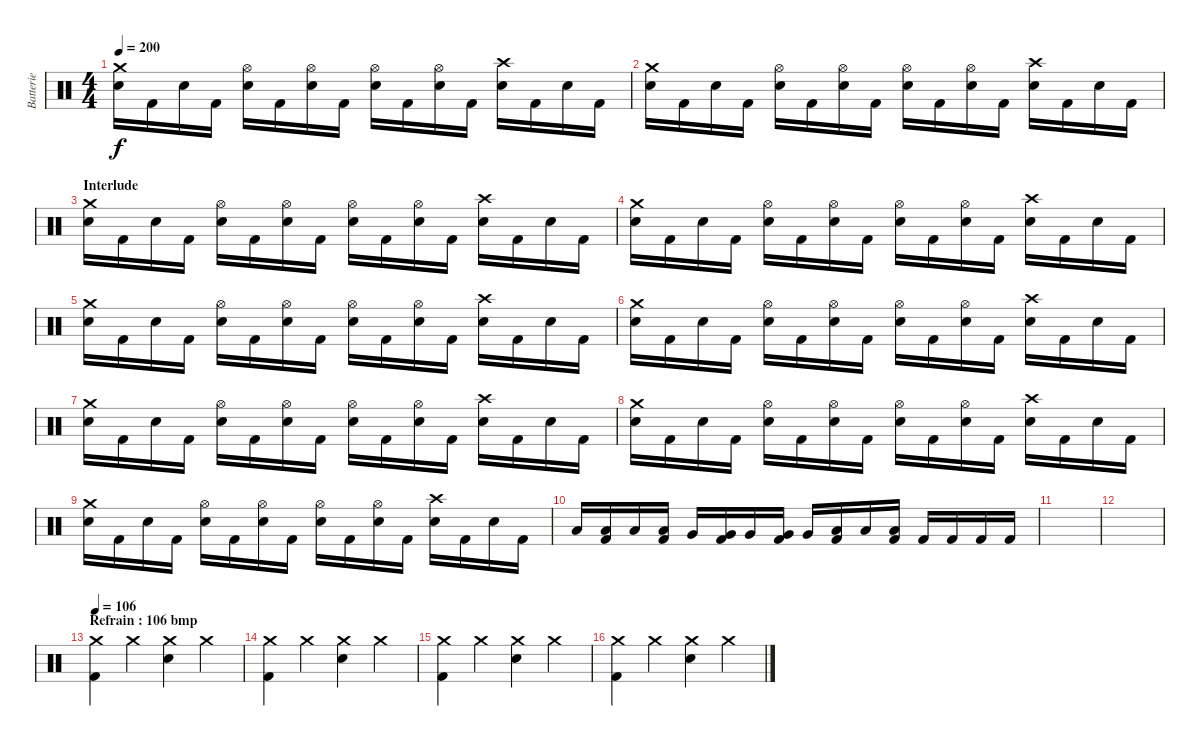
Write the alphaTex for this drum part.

\track ("Batterie" "Batterie") {instrument percussion}
\staff {score}
\articulation defaults
\ts (4 4)
\tempo 200
\clef neutral
\ks c
("Snare (hit) 2" "Crash medium (hit)").16{dy f} "Kick (hit) 2".16 "Snare (hit) 2".16 "Kick (hit) 2".16 ("Snare (hit) 2" "Hi-Hat (open)").16 "Kick (hit) 2".16 ("Snare (hit) 2" "Hi-Hat (open)").16 "Kick (hit) 2".16 ("Snare (hit) 2" "Hi-Hat (open)").16 "Kick (hit) 2".16 ("Snare (hit) 2" "Hi-Hat (open)").16 "Kick (hit) 2".16 ("Snare (hit) 2" "Crash high (hit)").16 "Kick (hit) 2".16 "Snare (hit) 2".16 "Kick (hit) 2".16 |
("Snare (hit) 2" "Crash medium (hit)").16 "Kick (hit) 2".16 "Snare (hit) 2".16 "Kick (hit) 2".16 ("Snare (hit) 2" "Hi-Hat (open)").16 "Kick (hit) 2".16 ("Snare (hit) 2" "Hi-Hat (open)").16 "Kick (hit) 2".16 ("Snare (hit) 2" "Hi-Hat (open)").16 "Kick (hit) 2".16 ("Snare (hit) 2" "Hi-Hat (open)").16 "Kick (hit) 2".16 ("Snare (hit) 2" "Crash high (hit)").16 "Kick (hit) 2".16 "Snare (hit) 2".16 "Kick (hit) 2".16 |
\section ("" "Interlude")
("Snare (hit) 2" "Crash medium (hit)").16 "Kick (hit) 2".16 "Snare (hit) 2".16 "Kick (hit) 2".16 ("Snare (hit) 2" "Hi-Hat (open)").16 "Kick (hit) 2".16 ("Snare (hit) 2" "Hi-Hat (open)").16 "Kick (hit) 2".16 ("Snare (hit) 2" "Hi-Hat (open)").16 "Kick (hit) 2".16 ("Snare (hit) 2" "Hi-Hat (open)").16 "Kick (hit) 2".16 ("Snare (hit) 2" "Crash high (hit)").16 "Kick (hit) 2".16 "Snare (hit) 2".16 "Kick (hit) 2".16 |
("Snare (hit) 2" "Crash medium (hit)").16 "Kick (hit) 2".16 "Snare (hit) 2".16 "Kick (hit) 2".16 ("Snare (hit) 2" "Hi-Hat (open)").16 "Kick (hit) 2".16 ("Snare (hit) 2" "Hi-Hat (open)").16 "Kick (hit) 2".16 ("Snare (hit) 2" "Hi-Hat (open)").16 "Kick (hit) 2".16 ("Snare (hit) 2" "Hi-Hat (open)").16 "Kick (hit) 2".16 ("Snare (hit) 2" "Crash high (hit)").16 "Kick (hit) 2".16 "Snare (hit) 2".16 "Kick (hit) 2".16 |
("Snare (hit) 2" "Crash medium (hit)").16 "Kick (hit) 2".16 "Snare (hit) 2".16 "Kick (hit) 2".16 ("Snare (hit) 2" "Hi-Hat (open)").16 "Kick (hit) 2".16 ("Snare (hit) 2" "Hi-Hat (open)").16 "Kick (hit) 2".16 ("Snare (hit) 2" "Hi-Hat (open)").16 "Kick (hit) 2".16 ("Snare (hit) 2" "Hi-Hat (open)").16 "Kick (hit) 2".16 ("Snare (hit) 2" "Crash high (hit)").16 "Kick (hit) 2".16 "Snare (hit) 2".16 "Kick (hit) 2".16 |
("Snare (hit) 2" "Crash medium (hit)").16 "Kick (hit) 2".16 "Snare (hit) 2".16 "Kick (hit) 2".16 ("Snare (hit) 2" "Hi-Hat (open)").16 "Kick (hit) 2".16 ("Snare (hit) 2" "Hi-Hat (open)").16 "Kick (hit) 2".16 ("Snare (hit) 2" "Hi-Hat (open)").16 "Kick (hit) 2".16 ("Snare (hit) 2" "Hi-Hat (open)").16 "Kick (hit) 2".16 ("Snare (hit) 2" "Crash high (hit)").16 "Kick (hit) 2".16 "Snare (hit) 2".16 "Kick (hit) 2".16 |
("Snare (hit) 2" "Crash medium (hit)").16 "Kick (hit) 2".16 "Snare (hit) 2".16 "Kick (hit) 2".16 ("Snare (hit) 2" "Hi-Hat (open)").16 "Kick (hit) 2".16 ("Snare (hit) 2" "Hi-Hat (open)").16 "Kick (hit) 2".16 ("Snare (hit) 2" "Hi-Hat (open)").16 "Kick (hit) 2".16 ("Snare (hit) 2" "Hi-Hat (open)").16 "Kick (hit) 2".16 ("Snare (hit) 2" "Crash high (hit)").16 "Kick (hit) 2".16 "Snare (hit) 2".16 "Kick (hit) 2".16 |
("Snare (hit) 2" "Crash medium (hit)").16 "Kick (hit) 2".16 "Snare (hit) 2".16 "Kick (hit) 2".16 ("Snare (hit) 2" "Hi-Hat (open)").16 "Kick (hit) 2".16 ("Snare (hit) 2" "Hi-Hat (open)").16 "Kick (hit) 2".16 ("Snare (hit) 2" "Hi-Hat (open)").16 "Kick (hit) 2".16 ("Snare (hit) 2" "Hi-Hat (open)").16 "Kick (hit) 2".16 ("Snare (hit) 2" "Crash high (hit)").16 "Kick (hit) 2".16 "Snare (hit) 2".16 "Kick (hit) 2".16 |
("Snare (hit) 2" "Crash medium (hit)").16 "Kick (hit) 2".16 "Snare (hit) 2".16 "Kick (hit) 2".16 ("Snare (hit) 2" "Hi-Hat (open)").16 "Kick (hit) 2".16 ("Snare (hit) 2" "Hi-Hat (open)").16 "Kick (hit) 2".16 ("Snare (hit) 2" "Hi-Hat (open)").16 "Kick (hit) 2".16 ("Snare (hit) 2" "Hi-Hat (open)").16 "Kick (hit) 2".16 ("Snare (hit) 2" "Crash high (hit)").16 "Kick (hit) 2".16 "Snare (hit) 2".16 "Kick (hit) 2".16 |
"Low Tom (hit)".16 ("Low Tom (hit)" "Kick (hit) 2").16 "Low Tom (hit)".16 ("Low Tom (hit)" "Kick (hit) 2").16 "Very Low Tom (hit)".16 ("Very Low Tom (hit)" "Kick (hit) 2").16 "Very Low Tom (hit)".16 ("Very Low Tom (hit)" "Kick (hit) 2").16 "Very Low Tom (hit)".16 ("Low Floor Tom (hit)" "Kick (hit) 2").16 "Low Floor Tom (hit)".16 ("Low Floor Tom (hit)" "Kick (hit) 2").16 "Kick (hit) 2".16 "Kick (hit) 2".16 "Kick (hit) 2".16 "Kick (hit) 2".16 |
|
|
\section ("" "Refrain : 106 bmp")
\tempo 106
("Crash medium (hit)" "Kick (hit) 2").4 "Crash medium (hit)".4 ("Crash medium (hit)" "Snare (hit) 2").4 "Crash medium (hit)".4 |
("Crash medium (hit)" "Kick (hit) 2").4 "Crash medium (hit)".4 ("Crash medium (hit)" "Snare (hit) 2").4 "Crash medium (hit)".4 |
("Crash medium (hit)" "Kick (hit) 2").4 "Crash medium (hit)".4 ("Crash medium (hit)" "Snare (hit) 2").4 "Crash medium (hit)".4 |
("Crash medium (hit)" "Kick (hit) 2").4 "Crash medium (hit)".4 ("Crash medium (hit)" "Snare (hit) 2").4 "Crash medium (hit)".4
